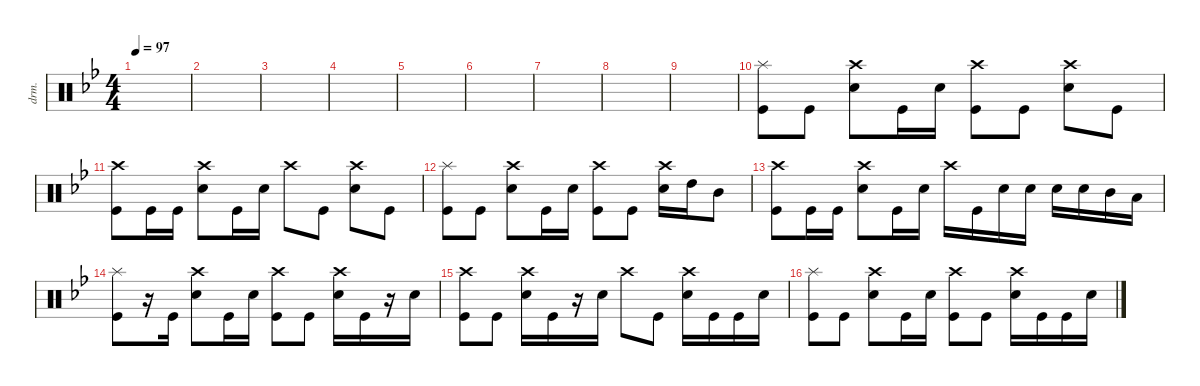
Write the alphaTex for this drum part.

\defaultSystemsLayout 4
\hideDynamics
\bracketExtendMode nobrackets
\otherSystemsTrackNameOrientation horizontal
\track ("Drumkit" "drm.") {instrument percussion}
\staff {score}
\articulation defaults
\ts (4 4)
\tempo 97
\clef neutral
\ks bb
|
|
|
|
|
|
|
|
|
("Kick (hit)" "Splash (hit)").8 "Kick (hit)".8 ("Snare (hit) 2" "Crash high (hit)").8 "Kick (hit)".16 "Snare (hit) 2".16 ("Kick (hit)" "Crash high (hit)").8 "Kick (hit)".8 ("Snare (hit) 2" "Crash high (hit)").8 "Kick (hit)".8 |
("Kick (hit)" "Crash high (hit)").8 "Kick (hit)".16 "Kick (hit)".16 ("Snare (hit) 2" "Crash high (hit)").8 "Kick (hit)".16 "Snare (hit) 2".16 "Crash high (hit)".8 "Kick (hit)".8 ("Snare (hit) 2" "Crash high (hit)").8 "Kick (hit)".8 |
("Kick (hit)" "Splash (hit)").8 "Kick (hit)".8 ("Snare (hit) 2" "Crash high (hit)").8 "Kick (hit)".16 "Snare (hit) 2".16 ("Kick (hit)" "Crash high (hit)").8 "Kick (hit)".8 ("Snare (hit) 2" "Crash high (hit)").16 "High Tom (hit)".16 "Mid Tom (hit)".8 |
("Kick (hit)" "Crash high (hit)").8 "Kick (hit)".16 "Kick (hit)".16 ("Snare (hit) 2" "Crash high (hit)").8 "Kick (hit)".16 "Snare (hit) 2".16 "Crash high (hit)".16 "Kick (hit)".16 "Snare (hit) 2".16 "Snare (hit) 2".16 "Snare (hit) 2".16 "Snare (hit) 2".16 "Mid Tom (hit)".16 "Low Tom (hit)".16 |
("Kick (hit)" "Splash (hit)").8 r.16 "Kick (hit)".16 ("Snare (hit) 2" "Crash high (hit)").8 "Kick (hit)".16 "Snare (hit) 2".16 ("Kick (hit)" "Crash high (hit)").8 "Kick (hit)".8 ("Snare (hit) 2" "Crash high (hit)").16 "Kick (hit)".16 r.16 "Snare (hit) 2".16 |
("Kick (hit)" "Crash high (hit)").8 "Kick (hit)".8 ("Snare (hit) 2" "Crash high (hit)").16 "Kick (hit)".16 r.16 "Snare (hit) 2".16 "Crash high (hit)".8 "Kick (hit)".8 ("Snare (hit) 2" "Crash high (hit)").16 "Kick (hit)".16 "Kick (hit)".16 "Snare (hit) 2".16 |
("Kick (hit)" "Splash (hit)").8 "Kick (hit)".8 ("Snare (hit) 2" "Crash high (hit)").8 "Kick (hit)".16 "Snare (hit) 2".16 ("Kick (hit)" "Crash high (hit)").8 "Kick (hit)".8 ("Snare (hit) 2" "Crash high (hit)").16 "Kick (hit)".16 "Kick (hit)".16 "Snare (hit) 2".16
